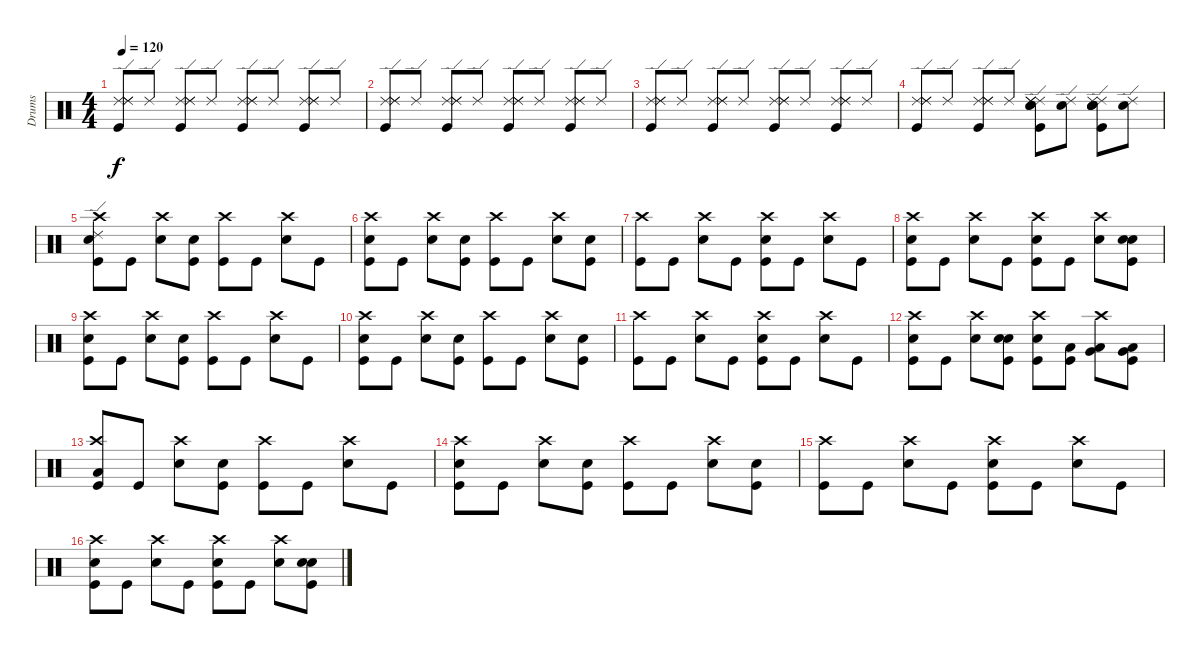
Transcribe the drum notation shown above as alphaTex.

\track ("Drums" "Drums") {instrument percussion}
\staff {score}
\articulation defaults
\ts (4 4)
\tempo 120
\clef neutral
\ks c
("Ride (edge) 2" "Ride (edge) 2" "Kick (hit)" "Ride (edge) 2").8{dy f} "Ride (edge) 2".8 ("Ride (edge) 2" "Kick (hit)" "Ride (edge) 2" "Ride (edge) 2").8 "Ride (edge) 2".8 ("Ride (edge) 2" "Ride (edge) 2" "Kick (hit)" "Ride (edge) 2").8 "Ride (edge) 2".8 ("Ride (edge) 2" "Kick (hit)" "Ride (edge) 2" "Ride (edge) 2").8 "Ride (edge) 2".8 |
("Ride (edge) 2" "Kick (hit)" "Ride (edge) 2" "Ride (edge) 2").8 "Ride (edge) 2".8 ("Ride (edge) 2" "Ride (edge) 2" "Kick (hit)" "Ride (edge) 2").8 "Ride (edge) 2".8 ("Ride (edge) 2" "Ride (edge) 2" "Kick (hit)" "Ride (edge) 2").8 "Ride (edge) 2".8 ("Ride (edge) 2" "Ride (edge) 2" "Kick (hit)" "Ride (edge) 2").8 "Ride (edge) 2".8 |
("Ride (edge) 2" "Ride (edge) 2" "Kick (hit)" "Ride (edge) 2").8 "Ride (edge) 2".8 ("Ride (edge) 2" "Kick (hit)" "Ride (edge) 2" "Ride (edge) 2").8 "Ride (edge) 2".8 ("Ride (edge) 2" "Ride (edge) 2" "Kick (hit)" "Ride (edge) 2").8 "Ride (edge) 2".8 ("Ride (edge) 2" "Kick (hit)" "Ride (edge) 2" "Ride (edge) 2").8 "Ride (edge) 2".8 |
("Ride (edge) 2" "Kick (hit)" "Ride (edge) 2" "Ride (edge) 2").8 "Ride (edge) 2".8 ("Ride (edge) 2" "Ride (edge) 2" "Kick (hit)" "Ride (edge) 2").8 "Ride (edge) 2".8 ("Ride (edge) 2" "Electric Snare (hit)" "Ride (edge) 2" "Kick (hit)" "Electric Snare (hit)" "Ride (edge) 2").8 ("Electric Snare (hit)" "Ride (edge) 2").8 ("Electric Snare (hit)" "Ride (edge) 2" "Electric Snare (hit)" "Ride (edge) 2" "Kick (hit)" "Electric Snare (hit)").8 ("Electric Snare (hit)" "Ride (edge) 2").8 |
("Electric Snare (hit)" "Ride (edge) 2" "Kick (hit)" "Crash high (hit)").8 "Kick (hit)".8 ("Electric Snare (hit)" "Crash high (hit)").8 ("Kick (hit)" "Electric Snare (hit)").8 ("Crash high (hit)" "Kick (hit)").8 "Kick (hit)".8 ("Crash high (hit)" "Electric Snare (hit)").8 "Kick (hit)".8 |
("Electric Snare (hit)" "Crash high (hit)" "Kick (hit)").8 "Kick (hit)".8 ("Crash high (hit)" "Electric Snare (hit)").8 ("Kick (hit)" "Electric Snare (hit)").8 ("Crash high (hit)" "Kick (hit)").8 "Kick (hit)".8 ("Crash high (hit)" "Electric Snare (hit)").8 ("Kick (hit)" "Electric Snare (hit)").8 |
("Crash high (hit)" "Kick (hit)").8 "Kick (hit)".8 ("Crash high (hit)" "Electric Snare (hit)").8 "Kick (hit)".8 ("Electric Snare (hit)" "Crash high (hit)" "Kick (hit)").8 "Kick (hit)".8 ("Crash high (hit)" "Electric Snare (hit)").8 "Kick (hit)".8 |
("Electric Snare (hit)" "Crash high (hit)" "Kick (hit)").8 "Kick (hit)".8 ("Crash high (hit)" "Electric Snare (hit)").8 "Kick (hit)".8 ("Electric Snare (hit)" "Crash high (hit)" "Kick (hit)").8 "Kick (hit)".8 ("Crash high (hit)" "Electric Snare (hit)").8 ("Kick (hit)" "Electric Snare (hit)" "Electric Snare (hit)").8 |
("Electric Snare (hit)" "Crash high (hit)" "Kick (hit)").8 "Kick (hit)".8 ("Electric Snare (hit)" "Crash high (hit)").8 ("Kick (hit)" "Electric Snare (hit)").8 ("Crash high (hit)" "Kick (hit)").8 "Kick (hit)".8 ("Crash high (hit)" "Electric Snare (hit)").8 "Kick (hit)".8 |
("Electric Snare (hit)" "Crash high (hit)" "Kick (hit)").8 "Kick (hit)".8 ("Crash high (hit)" "Electric Snare (hit)").8 ("Kick (hit)" "Electric Snare (hit)").8 ("Crash high (hit)" "Kick (hit)").8 "Kick (hit)".8 ("Crash high (hit)" "Electric Snare (hit)").8 ("Kick (hit)" "Electric Snare (hit)").8 |
("Crash high (hit)" "Kick (hit)").8 "Kick (hit)".8 ("Crash high (hit)" "Electric Snare (hit)").8 "Kick (hit)".8 ("Electric Snare (hit)" "Crash high (hit)" "Kick (hit)").8 "Kick (hit)".8 ("Crash high (hit)" "Electric Snare (hit)").8 "Kick (hit)".8 |
("Electric Snare (hit)" "Crash high (hit)" "Kick (hit)").8 "Kick (hit)".8 ("Crash high (hit)" "Electric Snare (hit)").8 ("Kick (hit)" "Electric Snare (hit)" "Electric Snare (hit)").8 ("Electric Snare (hit)" "Crash high (hit)" "Kick (hit)").8 ("Kick (hit)" "Low Tom (hit)").8 ("Low Tom (hit)" "Crash high (hit)" "Very Low Tom (hit)").8 ("Kick (hit)" "Very Low Tom (hit)" "Low Floor Tom (hit)").8 |
("Low Floor Tom (hit)" "Crash high (hit)" "Kick (hit)").8 "Kick (hit)".8 ("Electric Snare (hit)" "Crash high (hit)").8 ("Kick (hit)" "Electric Snare (hit)").8 ("Crash high (hit)" "Kick (hit)").8 "Kick (hit)".8 ("Crash high (hit)" "Electric Snare (hit)").8 "Kick (hit)".8 |
("Electric Snare (hit)" "Crash high (hit)" "Kick (hit)").8 "Kick (hit)".8 ("Crash high (hit)" "Electric Snare (hit)").8 ("Kick (hit)" "Electric Snare (hit)").8 ("Crash high (hit)" "Kick (hit)").8 "Kick (hit)".8 ("Crash high (hit)" "Electric Snare (hit)").8 ("Kick (hit)" "Electric Snare (hit)").8 |
("Crash high (hit)" "Kick (hit)").8 "Kick (hit)".8 ("Crash high (hit)" "Electric Snare (hit)").8 "Kick (hit)".8 ("Electric Snare (hit)" "Crash high (hit)" "Kick (hit)").8 "Kick (hit)".8 ("Crash high (hit)" "Electric Snare (hit)").8 "Kick (hit)".8 |
("Electric Snare (hit)" "Crash high (hit)" "Kick (hit)").8 "Kick (hit)".8 ("Crash high (hit)" "Electric Snare (hit)").8 "Kick (hit)".8 ("Electric Snare (hit)" "Crash high (hit)" "Kick (hit)").8 "Kick (hit)".8 ("Crash high (hit)" "Electric Snare (hit)").8 ("Electric Snare (hit)" "Kick (hit)" "Electric Snare (hit)").8
